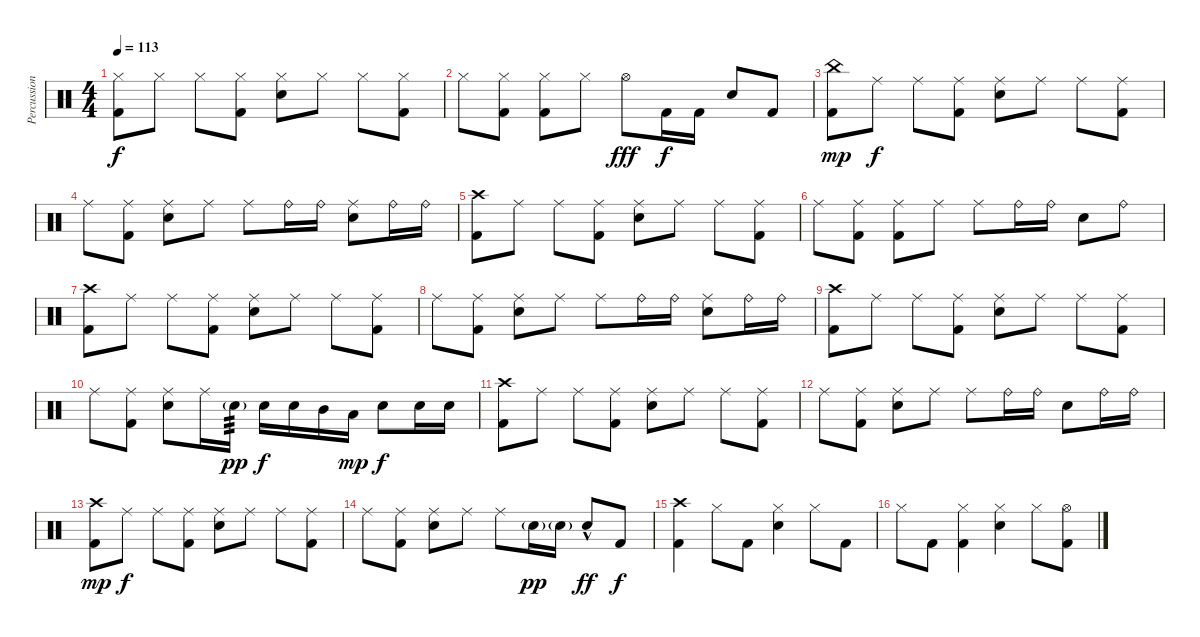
\track ("Percussion" "Percussion") {instrument percussion}
\staff {score}
\articulation defaults
\ts (4 4)
\tempo 113
\clef neutral
\ks c
("Hi-Hat (closed)" "Kick (hit) 2").8{dy f} "Hi-Hat (closed)".8 "Hi-Hat (closed)".8 ("Hi-Hat (closed)" "Kick (hit) 2").8 ("Hi-Hat (closed)" "Snare (hit) 2").8 "Hi-Hat (closed)".8 "Hi-Hat (closed)".8 ("Hi-Hat (closed)" "Kick (hit) 2").8 |
"Hi-Hat (closed)".8 ("Hi-Hat (closed)" "Kick (hit) 2").8 ("Hi-Hat (closed)" "Kick (hit) 2").8 "Hi-Hat (closed)".8 "Hi-Hat (open)".8{dy fff} "Kick (hit) 2".16{dy f} "Kick (hit) 2".16 "Snare (hit) 2".8 "Kick (hit) 2".8 |
("China (hit)" "Kick (hit) 2").8{dy mp} "Ride (middle)".8{dy f} "Ride (middle)".8 ("Ride (middle)" "Kick (hit) 2").8 ("Ride (middle)" "Snare (hit) 2").8 "Ride (middle)".8 "Ride (middle)".8 ("Ride (middle)" "Kick (hit) 2").8 |
"Ride (middle)".8 ("Ride (middle)" "Kick (hit) 2").8 ("Ride (middle)" "Snare (hit) 2").8 "Ride (middle)".8 "Ride (middle)".8 "Ride (bell)".16 "Ride (bell)".16 ("Ride (middle)" "Snare (hit) 2").8 "Ride (bell)".16 "Ride (bell)".16 |
("Crash high (hit)" "Kick (hit) 2").8 "Ride (middle)".8 "Ride (middle)".8 ("Ride (middle)" "Kick (hit) 2").8 ("Ride (middle)" "Snare (hit) 2").8 "Ride (middle)".8 "Ride (middle)".8 ("Ride (middle)" "Kick (hit) 2").8 |
"Ride (middle)".8 ("Ride (middle)" "Kick (hit) 2").8 ("Ride (middle)" "Kick (hit) 2").8 "Ride (middle)".8 "Ride (middle)".8 "Ride (bell)".16 "Ride (bell)".16 "Snare (hit) 2".8 "Ride (bell)".8 |
("Crash high (hit)" "Kick (hit) 2").8 "Ride (middle)".8 "Ride (middle)".8 ("Ride (middle)" "Kick (hit) 2").8 ("Ride (middle)" "Snare (hit) 2").8 "Ride (middle)".8 "Ride (middle)".8 ("Ride (middle)" "Kick (hit) 2").8 |
"Ride (middle)".8 ("Ride (middle)" "Kick (hit) 2").8 ("Ride (middle)" "Snare (hit) 2").8 "Ride (middle)".8 "Ride (middle)".8 "Ride (bell)".16 "Ride (bell)".16 ("Ride (middle)" "Snare (hit) 2").8 "Ride (bell)".16 "Ride (bell)".16 |
("Crash high (hit)" "Kick (hit) 2").8 "Ride (middle)".8 "Ride (middle)".8 ("Ride (middle)" "Kick (hit) 2").8 ("Ride (middle)" "Snare (hit) 2").8 "Ride (middle)".8 "Ride (middle)".8 ("Ride (middle)" "Kick (hit) 2").8 |
"Ride (middle)".8 ("Ride (middle)" "Kick (hit) 2").8 ("Ride (middle)" "Snare (hit) 2").8 "Ride (middle)".16 "Snare (hit) 2"{g}.16{tp 3 dy pp} "Snare (hit) 2".16{dy f} "Snare (hit) 2".16 "Mid Tom (hit)".16 "Low Floor Tom (hit)".16{dy mp} "Snare (hit) 2".8{dy f} "Snare (hit) 2".16 "Snare (hit) 2".16 |
("Crash high (hit)" "Kick (hit) 2").8 "Ride (middle)".8 "Ride (middle)".8 ("Ride (middle)" "Kick (hit) 2").8 ("Ride (middle)" "Snare (hit) 2").8 "Ride (middle)".8 "Ride (middle)".8 ("Ride (middle)" "Kick (hit) 2").8 |
"Ride (middle)".8 ("Ride (middle)" "Kick (hit) 2").8 ("Ride (middle)" "Snare (hit) 2").8 "Ride (middle)".8 "Ride (middle)".8 "Ride (bell)".16 "Ride (bell)".16 "Snare (hit) 2".8 "Ride (bell)".16 "Ride (bell)".16 |
("Crash high (hit)" "Kick (hit) 2").8{dy mp} "Ride (middle)".8{dy f} "Ride (middle)".8 ("Ride (middle)" "Kick (hit) 2").8 ("Ride (middle)" "Snare (hit) 2").8 "Ride (middle)".8 "Ride (middle)".8 ("Ride (middle)" "Kick (hit) 2").8 |
"Ride (middle)".8 ("Ride (middle)" "Kick (hit) 2").8 ("Ride (middle)" "Snare (hit) 2").8 "Ride (middle)".8 "Ride (middle)".8 "Snare (hit) 2"{g}.16{dy pp} "Snare (hit) 2"{g}.16 "Snare (hit) 2"{hac}.8{dy ff} "Kick (hit) 2".8{dy f} |
("Crash high (hit)" "Kick (hit) 2").4 "Hi-Hat (closed)".8 "Kick (hit) 2".8 ("Hi-Hat (closed)" "Snare (hit) 2").4 "Hi-Hat (closed)".8 "Kick (hit) 2".8 |
"Hi-Hat (closed)".8 "Kick (hit) 2".8 ("Hi-Hat (closed)" "Kick (hit) 2").4 ("Hi-Hat (closed)" "Snare (hit) 2").4 "Hi-Hat (closed)".8 ("Hi-Hat (open)" "Kick (hit) 2").8
